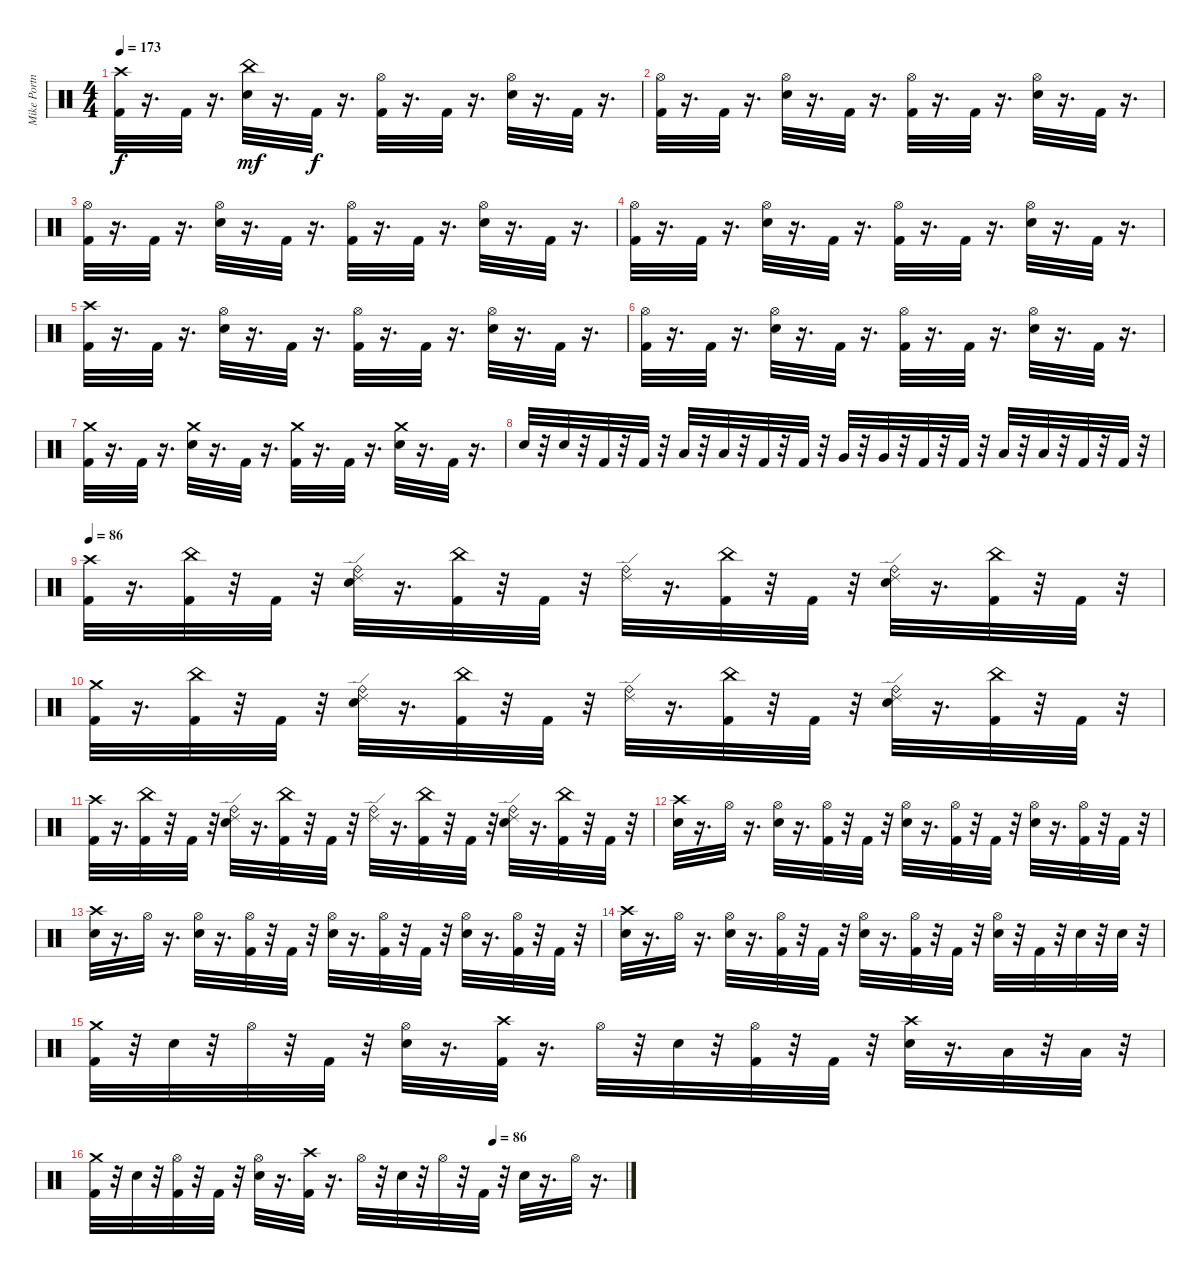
\track ("Mike Portnoy" "Mike Portn") {instrument percussion}
\staff {score}
\articulation defaults
\ts (4 4)
\tempo 173
\clef neutral
\ks c
("Crash high (hit)" "Kick (hit) 2").32{dy f} r.16{d} "Kick (hit) 2".32 r.16{d} ("Snare (hit) 2" "China (hit)").32{dy mf} r.16{d} "Kick (hit) 2".32{dy f} r.16{d} ("Kick (hit) 2" "Hi-Hat (open)").32 r.16{d} "Kick (hit) 2".32 r.16{d} ("Snare (hit) 2" "Hi-Hat (open)").32 r.16{d} "Kick (hit) 2".32 r.16{d} |
("Hi-Hat (open)" "Kick (hit) 2").32 r.16{d} "Kick (hit) 2".32 r.16{d} ("Snare (hit) 2" "Hi-Hat (open)").32 r.16{d} "Kick (hit) 2".32 r.16{d} ("Kick (hit) 2" "Hi-Hat (open)").32 r.16{d} "Kick (hit) 2".32 r.16{d} ("Snare (hit) 2" "Hi-Hat (open)").32 r.16{d} "Kick (hit) 2".32 r.16{d} |
("Hi-Hat (open)" "Kick (hit) 2").32 r.16{d} "Kick (hit) 2".32 r.16{d} ("Snare (hit) 2" "Hi-Hat (open)").32 r.16{d} "Kick (hit) 2".32 r.16{d} ("Kick (hit) 2" "Hi-Hat (open)").32 r.16{d} "Kick (hit) 2".32 r.16{d} ("Snare (hit) 2" "Hi-Hat (open)").32 r.16{d} "Kick (hit) 2".32 r.16{d} |
("Hi-Hat (open)" "Kick (hit) 2").32 r.16{d} "Kick (hit) 2".32 r.16{d} ("Snare (hit) 2" "Hi-Hat (open)").32 r.16{d} "Kick (hit) 2".32 r.16{d} ("Kick (hit) 2" "Hi-Hat (open)").32 r.16{d} "Kick (hit) 2".32 r.16{d} ("Snare (hit) 2" "Hi-Hat (open)").32 r.16{d} "Kick (hit) 2".32 r.16{d} |
("Crash high (hit)" "Kick (hit) 2").32 r.16{d} "Kick (hit) 2".32 r.16{d} ("Snare (hit) 2" "Hi-Hat (open)").32 r.16{d} "Kick (hit) 2".32 r.16{d} ("Kick (hit) 2" "Hi-Hat (open)").32 r.16{d} "Kick (hit) 2".32 r.16{d} ("Snare (hit) 2" "Hi-Hat (open)").32 r.16{d} "Kick (hit) 2".32 r.16{d} |
("Hi-Hat (open)" "Kick (hit) 2").32 r.16{d} "Kick (hit) 2".32 r.16{d} ("Snare (hit) 2" "Hi-Hat (open)").32 r.16{d} "Kick (hit) 2".32 r.16{d} ("Kick (hit) 2" "Hi-Hat (open)").32 r.16{d} "Kick (hit) 2".32 r.16{d} ("Snare (hit) 2" "Hi-Hat (open)").32 r.16{d} "Kick (hit) 2".32 r.16{d} |
("Crash medium (hit)" "Kick (hit) 2").32 r.16{d} "Kick (hit) 2".32 r.16{d} ("Crash medium (hit)" "Snare (hit) 2").32 r.16{d} "Kick (hit) 2".32 r.16{d} ("Crash medium (hit)" "Kick (hit) 2").32 r.16{d} "Kick (hit) 2".32 r.16{d} ("Crash medium (hit)" "Snare (hit) 2").32 r.16{d} "Kick (hit) 2".32 r.16{d} |
"Snare (hit) 2".32 r.32 "Snare (hit) 2".32 r.32 "Kick (hit) 2".32 r.32 "Kick (hit) 2".32 r.32 "Low Tom (hit)".32 r.32 "Low Tom (hit)".32 r.32 "Kick (hit) 2".32 r.32 "Kick (hit) 2".32 r.32 "Very Low Tom (hit)".32 r.32 "Very Low Tom (hit)".32 r.32 "Kick (hit) 2".32 r.32 "Kick (hit) 2".32 r.32 "Low Floor Tom (hit)".32 r.32 "Low Floor Tom (hit)".32 r.32 "Kick (hit) 2".32 r.32 "Kick (hit) 2".32 r.32 |
\tempo 86
("Crash high (hit)" "Kick (hit) 2").32 r.16{d} ("China (hit)" "Kick (hit) 2").32 r.32 "Kick (hit) 2".32 r.32 ("Ride (edge) 2" "Ride (bell)" "Snare (hit) 2").32 r.16{d} ("China (hit)" "Kick (hit) 2").32 r.32 "Kick (hit) 2".32 r.32 ("Ride (bell)" "Ride (edge) 2").32 r.16{d} ("China (hit)" "Kick (hit) 2").32 r.32 "Kick (hit) 2".32 r.32 ("Ride (bell)" "Ride (edge) 2" "Snare (hit) 2").32 r.16{d} ("China (hit)" "Kick (hit) 2").32 r.32 "Kick (hit) 2".32 r.32 |
("Crash medium (hit)" "Kick (hit) 2").32 r.16{d} ("Kick (hit) 2" "China (hit)").32 r.32 "Kick (hit) 2".32 r.32 ("Snare (hit) 2" "Ride (bell)" "Ride (edge) 2").32 r.16{d} ("Kick (hit) 2" "China (hit)").32 r.32 "Kick (hit) 2".32 r.32 ("Ride (bell)" "Ride (edge) 2").32 r.16{d} ("Kick (hit) 2" "China (hit)").32 r.32 "Kick (hit) 2".32 r.32 ("Snare (hit) 2" "Ride (bell)" "Ride (edge) 2").32 r.16{d} ("Kick (hit) 2" "China (hit)").32 r.32 "Kick (hit) 2".32 r.32 |
("Crash high (hit)" "Kick (hit) 2").32 r.16{d} ("China (hit)" "Kick (hit) 2").32 r.32 "Kick (hit) 2".32 r.32 ("Ride (edge) 2" "Ride (bell)" "Snare (hit) 2").32 r.16{d} ("China (hit)" "Kick (hit) 2").32 r.32 "Kick (hit) 2".32 r.32 ("Ride (bell)" "Ride (edge) 2").32 r.16{d} ("China (hit)" "Kick (hit) 2").32 r.32 "Kick (hit) 2".32 r.32 ("Ride (bell)" "Ride (edge) 2" "Snare (hit) 2").32 r.16{d} ("China (hit)" "Kick (hit) 2").32 r.32 "Kick (hit) 2".32 r.32 |
("Crash high (hit)" "Snare (hit) 2").32 r.16{d} "Hi-Hat (open)".32 r.16{d} ("Hi-Hat (open)" "Snare (hit) 2").32 r.16{d} ("Hi-Hat (open)" "Kick (hit) 2").32 r.32 "Kick (hit) 2".32 r.32 ("Hi-Hat (open)" "Snare (hit) 2").32 r.16{d} ("Hi-Hat (open)" "Kick (hit) 2").32 r.32 "Kick (hit) 2".32 r.32 ("Hi-Hat (open)" "Snare (hit) 2").32 r.16{d} ("Hi-Hat (open)" "Kick (hit) 2").32 r.32 "Kick (hit) 2".32 r.32 |
("Crash high (hit)" "Snare (hit) 2").32 r.16{d} "Hi-Hat (open)".32 r.16{d} ("Hi-Hat (open)" "Snare (hit) 2").32 r.16{d} ("Hi-Hat (open)" "Kick (hit) 2").32 r.32 "Kick (hit) 2".32 r.32 ("Hi-Hat (open)" "Snare (hit) 2").32 r.16{d} ("Hi-Hat (open)" "Kick (hit) 2").32 r.32 "Kick (hit) 2".32 r.32 ("Hi-Hat (open)" "Snare (hit) 2").32 r.16{d} ("Hi-Hat (open)" "Kick (hit) 2").32 r.32 "Kick (hit) 2".32 r.32 |
("Crash high (hit)" "Snare (hit) 2").32 r.16{d} "Hi-Hat (open)".32 r.16{d} ("Hi-Hat (open)" "Snare (hit) 2").32 r.16{d} ("Hi-Hat (open)" "Kick (hit) 2").32 r.32 "Kick (hit) 2".32 r.32 ("Hi-Hat (open)" "Snare (hit) 2").32 r.16{d} ("Hi-Hat (open)" "Kick (hit) 2").32 r.32 "Kick (hit) 2".32 r.32 ("Hi-Hat (open)" "Snare (hit) 2").32 r.32 "Kick (hit) 2".32 r.32 "Snare (hit) 2".32 r.32 "Snare (hit) 2".32 r.32 |
("Crash medium (hit)" "Kick (hit) 2").32 r.32 "Snare (hit) 2".32 r.32 "Hi-Hat (open)".32 r.32 "Kick (hit) 2".32 r.32 ("Hi-Hat (open)" "Snare (hit) 2").32 r.16{d} ("Kick (hit) 2" "Crash high (hit)").32 r.16{d} "Hi-Hat (open)".32 r.32 "Snare (hit) 2".32 r.32 ("Hi-Hat (open)" "Kick (hit) 2").32 r.32 "Kick (hit) 2".32 r.32 ("Crash high (hit)" "Snare (hit) 2").32 r.16{d} "Low Tom (hit)".32 r.32 "Low Tom (hit)".32 r.32 |
\tempo (86 0.75)
("Crash medium (hit)" "Kick (hit) 2").32 r.32 "Snare (hit) 2".32 r.32 ("Kick (hit) 2" "Hi-Hat (open)").32 r.32 "Kick (hit) 2".32 r.32 ("Hi-Hat (open)" "Snare (hit) 2").32 r.16{d} ("Kick (hit) 2" "Crash high (hit)").32 r.16{d} "Hi-Hat (open)".32 r.32 "Snare (hit) 2".32 r.32 "Hi-Hat (open)".32 r.32 "Kick (hit) 2".32 r.32 "Snare (hit) 2".32 r.16{d} "Hi-Hat (open)".32 r.16{d}
